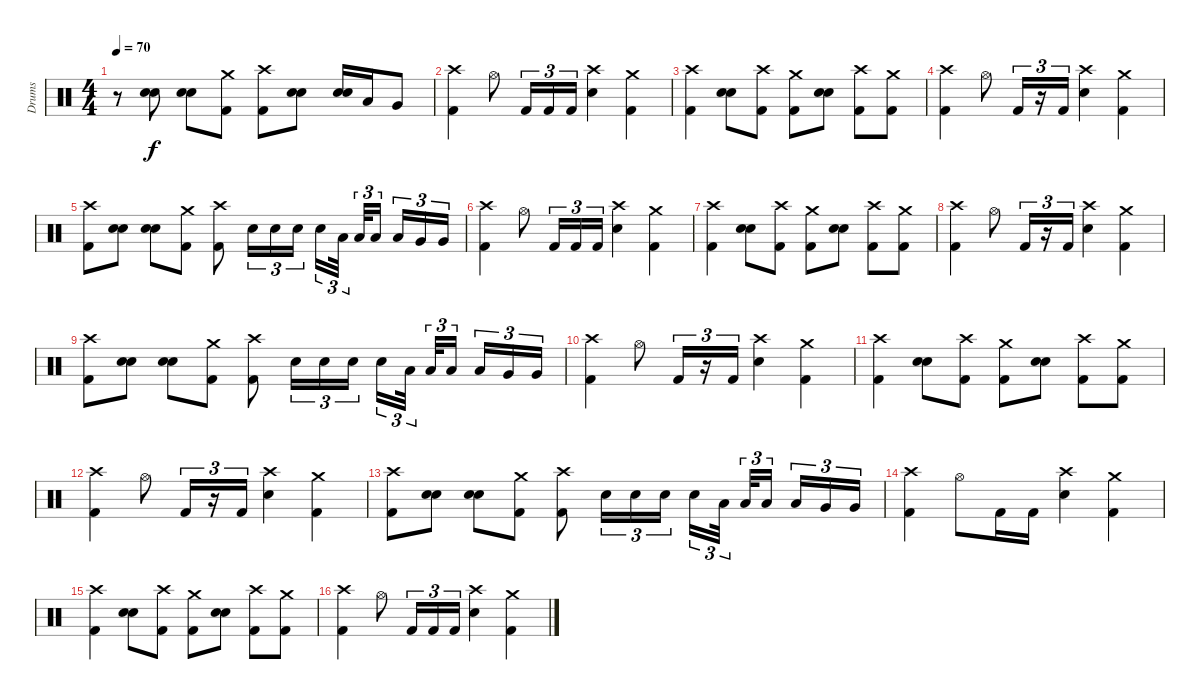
\track ("Drums" "Drums") {instrument percussion}
\staff {score}
\articulation defaults
\ts (4 4)
\tempo 70
\clef neutral
\ks c
r.8{dy f} ("Electric Snare (hit)" "Electric Snare (hit)").8{bu 60} ("Electric Snare (hit)" "Electric Snare (hit)").8{bu 60} ("Crash medium (hit)" "Kick (hit) 2").8 ("Crash high (hit)" "Kick (hit) 2").8 ("Electric Snare (hit)" "Electric Snare (hit)").8{bu 60} ("Electric Snare (hit)" "Electric Snare (hit)").16{bu 60} "Low Tom (hit)".16 "Very Low Tom (hit)".8 |
("Crash high (hit)" "Kick (hit) 2").4 "Hi-Hat (open)".8 "Kick (hit) 2".16{tu (3 2)} "Kick (hit) 2".16{tu (3 2)} "Kick (hit) 2".16{tu (3 2)} ("Crash high (hit)" "Electric Snare (hit)").4 ("Crash medium (hit)" "Kick (hit) 2").4 |
("Crash high (hit)" "Kick (hit) 2").4 ("Electric Snare (hit)" "Electric Snare (hit)").8{bu 60} ("Crash high (hit)" "Kick (hit) 2").8 ("Crash medium (hit)" "Kick (hit) 2").8 ("Electric Snare (hit)" "Electric Snare (hit)").8{bu 60} ("Crash high (hit)" "Kick (hit) 2").8 ("Crash medium (hit)" "Kick (hit) 2").8 |
("Crash high (hit)" "Kick (hit) 2").4 "Hi-Hat (open)".8 "Kick (hit) 2".16{tu (3 2)} r.16{tu (3 2)} "Kick (hit) 2".16{tu (3 2)} ("Crash high (hit)" "Electric Snare (hit)").4 ("Crash medium (hit)" "Kick (hit) 2").4 |
("Crash high (hit)" "Kick (hit) 2").8 ("Electric Snare (hit)" "Electric Snare (hit)").8{bu 60} ("Electric Snare (hit)" "Electric Snare (hit)").8{bu 60} ("Crash medium (hit)" "Kick (hit) 2").8 ("Crash high (hit)" "Kick (hit) 2").8 "Electric Snare (hit)".16{tu (3 2)} "Electric Snare (hit)".16{tu (3 2)} "Electric Snare (hit)".16{tu (3 2)} "Electric Snare (hit)".16{tu (3 2)} "Low Tom (hit)".32{tu (3 2)} "Low Tom (hit)".32{tu (3 2)} "Low Tom (hit)".16{tu (3 2)} "Low Tom (hit)".16{tu (3 2)} "Very Low Tom (hit)".16{tu (3 2)} "Very Low Tom (hit)".16{tu (3 2)} |
("Crash high (hit)" "Kick (hit) 2").4 "Hi-Hat (open)".8 "Kick (hit) 2".16{tu (3 2)} "Kick (hit) 2".16{tu (3 2)} "Kick (hit) 2".16{tu (3 2)} ("Crash high (hit)" "Electric Snare (hit)").4 ("Crash medium (hit)" "Kick (hit) 2").4 |
("Crash high (hit)" "Kick (hit) 2").4 ("Electric Snare (hit)" "Electric Snare (hit)").8{bu 60} ("Crash high (hit)" "Kick (hit) 2").8 ("Crash medium (hit)" "Kick (hit) 2").8 ("Electric Snare (hit)" "Electric Snare (hit)").8{bu 60} ("Crash high (hit)" "Kick (hit) 2").8 ("Crash medium (hit)" "Kick (hit) 2").8 |
("Crash high (hit)" "Kick (hit) 2").4 "Hi-Hat (open)".8 "Kick (hit) 2".16{tu (3 2)} r.16{tu (3 2)} "Kick (hit) 2".16{tu (3 2)} ("Crash high (hit)" "Electric Snare (hit)").4 ("Crash medium (hit)" "Kick (hit) 2").4 |
("Crash high (hit)" "Kick (hit) 2").8 ("Electric Snare (hit)" "Electric Snare (hit)").8{bu 60} ("Electric Snare (hit)" "Electric Snare (hit)").8{bu 60} ("Crash medium (hit)" "Kick (hit) 2").8 ("Crash high (hit)" "Kick (hit) 2").8 "Electric Snare (hit)".16{tu (3 2)} "Electric Snare (hit)".16{tu (3 2)} "Electric Snare (hit)".16{tu (3 2)} "Electric Snare (hit)".16{tu (3 2)} "Low Tom (hit)".32{tu (3 2)} "Low Tom (hit)".32{tu (3 2)} "Low Tom (hit)".16{tu (3 2)} "Low Tom (hit)".16{tu (3 2)} "Very Low Tom (hit)".16{tu (3 2)} "Very Low Tom (hit)".16{tu (3 2)} |
("Crash high (hit)" "Kick (hit) 2").4 "Hi-Hat (open)".8 "Kick (hit) 2".16{tu (3 2)} r.16{tu (3 2)} "Kick (hit) 2".16{tu (3 2)} ("Crash high (hit)" "Electric Snare (hit)").4 ("Crash medium (hit)" "Kick (hit) 2").4 |
("Crash high (hit)" "Kick (hit) 2").4 ("Electric Snare (hit)" "Electric Snare (hit)").8{bu 60} ("Crash high (hit)" "Kick (hit) 2").8 ("Crash medium (hit)" "Kick (hit) 2").8 ("Electric Snare (hit)" "Electric Snare (hit)").8{bu 60} ("Crash high (hit)" "Kick (hit) 2").8 ("Crash medium (hit)" "Kick (hit) 2").8 |
("Crash high (hit)" "Kick (hit) 2").4 "Hi-Hat (open)".8 "Kick (hit) 2".16{tu (3 2)} r.16{tu (3 2)} "Kick (hit) 2".16{tu (3 2)} ("Crash high (hit)" "Electric Snare (hit)").4 ("Crash medium (hit)" "Kick (hit) 2").4 |
("Crash high (hit)" "Kick (hit) 2").8 ("Electric Snare (hit)" "Electric Snare (hit)").8{bu 60} ("Electric Snare (hit)" "Electric Snare (hit)").8{bu 60} ("Crash medium (hit)" "Kick (hit) 2").8 ("Crash high (hit)" "Kick (hit) 2").8 "Electric Snare (hit)".16{tu (3 2)} "Electric Snare (hit)".16{tu (3 2)} "Electric Snare (hit)".16{tu (3 2)} "Electric Snare (hit)".16{tu (3 2)} "Low Tom (hit)".32{tu (3 2)} "Low Tom (hit)".32{tu (3 2)} "Low Tom (hit)".16{tu (3 2)} "Low Tom (hit)".16{tu (3 2)} "Very Low Tom (hit)".16{tu (3 2)} "Very Low Tom (hit)".16{tu (3 2)} |
("Crash high (hit)" "Kick (hit) 2").4 "Hi-Hat (open)".8 "Kick (hit) 2".16 "Kick (hit) 2".16 ("Crash high (hit)" "Electric Snare (hit)").4 ("Crash medium (hit)" "Kick (hit) 2").4 |
("Crash high (hit)" "Kick (hit) 2").4 ("Electric Snare (hit)" "Electric Snare (hit)").8{bu 60} ("Crash high (hit)" "Kick (hit) 2").8 ("Crash medium (hit)" "Kick (hit) 2").8 ("Electric Snare (hit)" "Electric Snare (hit)").8{bu 60} ("Crash high (hit)" "Kick (hit) 2").8 ("Crash medium (hit)" "Kick (hit) 2").8 |
("Crash high (hit)" "Kick (hit) 2").4 "Hi-Hat (open)".8 "Kick (hit) 2".16{tu (3 2)} "Kick (hit) 2".16{tu (3 2)} "Kick (hit) 2".16{tu (3 2)} ("Crash high (hit)" "Electric Snare (hit)").4 ("Crash medium (hit)" "Kick (hit) 2").4
